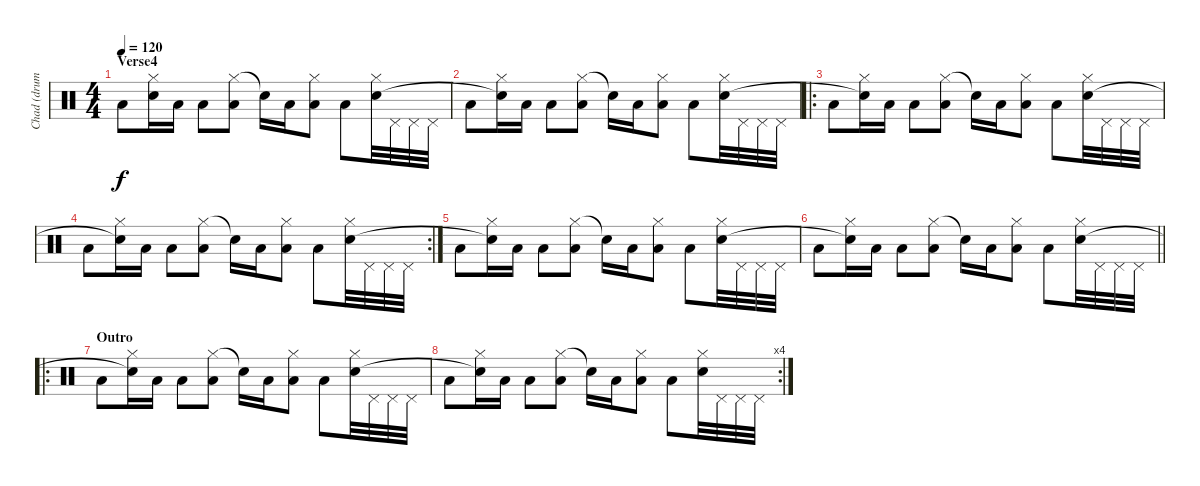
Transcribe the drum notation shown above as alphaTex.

\track ("Chad (drums)" "Chad (drum") {instrument percussion}
\staff {score}
\articulation defaults
\ts (4 4)
\section ("" "Verse4")
\tempo 120
\clef neutral
\ks c "Low Tom (hit)".8{dy f}
("Hi-Hat (closed)" "Snare (hit)"{t}).16 "Low Tom (hit)".16 "Low Floor Tom (hit)".8 ("Hi-Hat (closed)" "Low Tom (hit)").8 "Snare (hit)"{t}.16 "Low Tom (hit)".16 ("Hi-Hat (closed)" "Low Floor Tom (hit)").8 "Low Tom (hit)".8 ("Hi-Hat (closed)" "Snare (hit) 2").32 "Pedal Hi-Hat (hit)".32 "Pedal Hi-Hat (hit)".32 "Pedal Hi-Hat (hit)".32 |
"Low Tom (hit)".8 ("Hi-Hat (closed)" "Snare (hit)"{t}).16 "Low Tom (hit)".16 "Low Floor Tom (hit)".8 ("Hi-Hat (closed)" "Low Tom (hit)").8 "Snare (hit)"{t}.16 "Low Tom (hit)".16 ("Hi-Hat (closed)" "Low Floor Tom (hit)").8 "Low Tom (hit)".8 ("Hi-Hat (closed)" "Snare (hit) 2").32 "Pedal Hi-Hat (hit)".32 "Pedal Hi-Hat (hit)".32 "Pedal Hi-Hat (hit)".32 |
\ro "Low Tom (hit)".8
("Hi-Hat (closed)" "Snare (hit)"{t}).16 "Low Tom (hit)".16 "Low Floor Tom (hit)".8 ("Hi-Hat (closed)" "Low Tom (hit)").8 "Snare (hit)"{t}.16 "Low Tom (hit)".16 ("Hi-Hat (closed)" "Low Floor Tom (hit)").8 "Low Tom (hit)".8 ("Hi-Hat (closed)" "Snare (hit) 2").32 "Pedal Hi-Hat (hit)".32 "Pedal Hi-Hat (hit)".32 "Pedal Hi-Hat (hit)".32 |
\rc 2 "Low Tom (hit)".8
("Hi-Hat (closed)" "Snare (hit)"{t}).16 "Low Tom (hit)".16 "Low Floor Tom (hit)".8 ("Hi-Hat (closed)" "Low Tom (hit)").8 "Snare (hit)"{t}.16 "Low Tom (hit)".16 ("Hi-Hat (closed)" "Low Floor Tom (hit)").8 "Low Tom (hit)".8 ("Hi-Hat (closed)" "Snare (hit) 2").32 "Pedal Hi-Hat (hit)".32 "Pedal Hi-Hat (hit)".32 "Pedal Hi-Hat (hit)".32 |
"Low Tom (hit)".8 ("Hi-Hat (closed)" "Snare (hit)"{t}).16 "Low Tom (hit)".16 "Low Floor Tom (hit)".8 ("Hi-Hat (closed)" "Low Tom (hit)").8 "Snare (hit)"{t}.16 "Low Tom (hit)".16 ("Hi-Hat (closed)" "Low Floor Tom (hit)").8 "Low Tom (hit)".8 ("Hi-Hat (closed)" "Snare (hit) 2").32 "Pedal Hi-Hat (hit)".32 "Pedal Hi-Hat (hit)".32 "Pedal Hi-Hat (hit)".32 |
\barLineRight lightlight "Low Tom (hit)".8
("Hi-Hat (closed)" "Snare (hit)"{t}).16 "Low Tom (hit)".16 "Low Floor Tom (hit)".8 ("Hi-Hat (closed)" "Low Tom (hit)").8 "Snare (hit)"{t}.16 "Low Tom (hit)".16 ("Hi-Hat (closed)" "Low Floor Tom (hit)").8 "Low Tom (hit)".8 ("Hi-Hat (closed)" "Snare (hit) 2").32 "Pedal Hi-Hat (hit)".32 "Pedal Hi-Hat (hit)".32 "Pedal Hi-Hat (hit)".32 |
\ro
\section ("" "Outro")
"Low Tom (hit)".8 ("Hi-Hat (closed)" "Snare (hit)"{t}).16 "Low Tom (hit)".16 "Low Floor Tom (hit)".8 ("Hi-Hat (closed)" "Low Tom (hit)").8 "Snare (hit)"{t}.16 "Low Tom (hit)".16 ("Hi-Hat (closed)" "Low Floor Tom (hit)").8 "Low Tom (hit)".8 ("Hi-Hat (closed)" "Snare (hit) 2").32 "Pedal Hi-Hat (hit)".32 "Pedal Hi-Hat (hit)".32 "Pedal Hi-Hat (hit)".32 |
\rc 4 "Low Tom (hit)".8
("Hi-Hat (closed)" "Snare (hit)"{t}).16 "Low Tom (hit)".16 "Low Floor Tom (hit)".8 ("Hi-Hat (closed)" "Low Tom (hit)").8 "Snare (hit)"{t}.16 "Low Tom (hit)".16 ("Hi-Hat (closed)" "Low Floor Tom (hit)").8 "Low Tom (hit)".8 ("Hi-Hat (closed)" "Snare (hit) 2").32 "Pedal Hi-Hat (hit)".32 "Pedal Hi-Hat (hit)".32 "Pedal Hi-Hat (hit)".32
